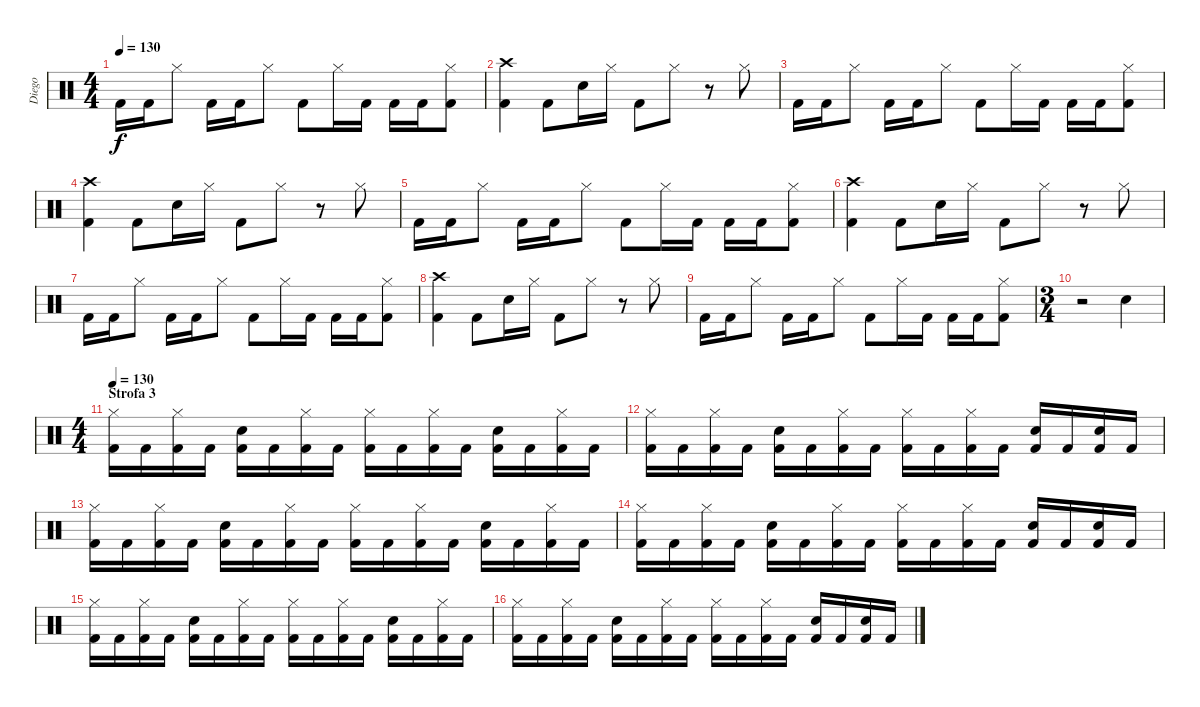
\track ("Diego" "Diego") {instrument percussion}
\staff {score}
\articulation defaults
\ts (4 4)
\tempo 130
\clef neutral
\ks c "Kick (hit) 2".16{dy f} "Kick (hit) 2".16 "Hi-Hat (closed)".8 "Kick (hit) 2".16 "Kick (hit) 2".16 "Hi-Hat (closed)".8 "Kick (hit) 2".8 "Hi-Hat (closed)".16 "Kick (hit) 2".16 "Kick (hit) 2".16 "Kick (hit) 2".16
("Hi-Hat (closed)" "Kick (hit) 2").8 |
("Crash high (hit)" "Kick (hit) 2").4 "Kick (hit) 2".8 "Snare (hit) 2".16 "Hi-Hat (closed)".16 "Kick (hit) 2".8 "Hi-Hat (closed)".8 r.8 "Hi-Hat (closed)".8 |
"Kick (hit) 2".16 "Kick (hit) 2".16 "Hi-Hat (closed)".8 "Kick (hit) 2".16 "Kick (hit) 2".16 "Hi-Hat (closed)".8 "Kick (hit) 2".8 "Hi-Hat (closed)".16 "Kick (hit) 2".16 "Kick (hit) 2".16 "Kick (hit) 2".16 ("Hi-Hat (closed)" "Kick (hit) 2").8 |
("Crash high (hit)" "Kick (hit) 2").4 "Kick (hit) 2".8 "Snare (hit) 2".16 "Hi-Hat (closed)".16 "Kick (hit) 2".8 "Hi-Hat (closed)".8 r.8 "Hi-Hat (closed)".8 |
"Kick (hit) 2".16 "Kick (hit) 2".16 "Hi-Hat (closed)".8 "Kick (hit) 2".16 "Kick (hit) 2".16 "Hi-Hat (closed)".8 "Kick (hit) 2".8 "Hi-Hat (closed)".16 "Kick (hit) 2".16 "Kick (hit) 2".16 "Kick (hit) 2".16 ("Hi-Hat (closed)" "Kick (hit) 2").8 |
("Crash high (hit)" "Kick (hit) 2").4 "Kick (hit) 2".8 "Snare (hit) 2".16 "Hi-Hat (closed)".16 "Kick (hit) 2".8 "Hi-Hat (closed)".8 r.8 "Hi-Hat (closed)".8 |
"Kick (hit) 2".16 "Kick (hit) 2".16 "Hi-Hat (closed)".8 "Kick (hit) 2".16 "Kick (hit) 2".16 "Hi-Hat (closed)".8 "Kick (hit) 2".8 "Hi-Hat (closed)".16 "Kick (hit) 2".16 "Kick (hit) 2".16 "Kick (hit) 2".16 ("Hi-Hat (closed)" "Kick (hit) 2").8 |
("Crash high (hit)" "Kick (hit) 2").4 "Kick (hit) 2".8 "Snare (hit) 2".16 "Hi-Hat (closed)".16 "Kick (hit) 2".8 "Hi-Hat (closed)".8 r.8 "Hi-Hat (closed)".8 |
"Kick (hit) 2".16 "Kick (hit) 2".16 "Hi-Hat (closed)".8 "Kick (hit) 2".16 "Kick (hit) 2".16 "Hi-Hat (closed)".8 "Kick (hit) 2".8 "Hi-Hat (closed)".16 "Kick (hit) 2".16 "Kick (hit) 2".16 "Kick (hit) 2".16 ("Hi-Hat (closed)" "Kick (hit) 2").8 |
\ts (3 4)
r.2 "Snare (hit) 2".4 |
\ts (4 4)
\section ("" "Strofa 3")
\tempo 130
("Hi-Hat (closed)" "Kick (hit) 2").16 "Kick (hit) 2".16 ("Hi-Hat (closed)" "Kick (hit) 2").16 "Kick (hit) 2".16 ("Snare (hit) 2" "Kick (hit) 2").16 "Kick (hit) 2".16 ("Hi-Hat (closed)" "Kick (hit) 2").16 "Kick (hit) 2".16 ("Hi-Hat (closed)" "Kick (hit) 2").16 "Kick (hit) 2".16 ("Hi-Hat (closed)" "Kick (hit) 2").16 "Kick (hit) 2".16 ("Snare (hit) 2" "Kick (hit) 2").16 "Kick (hit) 2".16 ("Hi-Hat (closed)" "Kick (hit) 2").16 "Kick (hit) 2".16 |
("Hi-Hat (closed)" "Kick (hit) 2").16 "Kick (hit) 2".16 ("Hi-Hat (closed)" "Kick (hit) 2").16 "Kick (hit) 2".16 ("Snare (hit) 2" "Kick (hit) 2").16 "Kick (hit) 2".16 ("Hi-Hat (closed)" "Kick (hit) 2").16 "Kick (hit) 2".16 ("Hi-Hat (closed)" "Kick (hit) 2").16 "Kick (hit) 2".16 ("Hi-Hat (closed)" "Kick (hit) 2").16 "Kick (hit) 2".16 ("Snare (hit) 2" "Kick (hit) 2").16 "Kick (hit) 2".16 ("Snare (hit) 2" "Kick (hit) 2").16 "Kick (hit) 2".16 |
("Hi-Hat (closed)" "Kick (hit) 2").16 "Kick (hit) 2".16 ("Hi-Hat (closed)" "Kick (hit) 2").16 "Kick (hit) 2".16 ("Snare (hit) 2" "Kick (hit) 2").16 "Kick (hit) 2".16 ("Hi-Hat (closed)" "Kick (hit) 2").16 "Kick (hit) 2".16 ("Hi-Hat (closed)" "Kick (hit) 2").16 "Kick (hit) 2".16 ("Hi-Hat (closed)" "Kick (hit) 2").16 "Kick (hit) 2".16 ("Snare (hit) 2" "Kick (hit) 2").16 "Kick (hit) 2".16 ("Hi-Hat (closed)" "Kick (hit) 2").16 "Kick (hit) 2".16 |
("Hi-Hat (closed)" "Kick (hit) 2").16 "Kick (hit) 2".16 ("Hi-Hat (closed)" "Kick (hit) 2").16 "Kick (hit) 2".16 ("Snare (hit) 2" "Kick (hit) 2").16 "Kick (hit) 2".16 ("Hi-Hat (closed)" "Kick (hit) 2").16 "Kick (hit) 2".16 ("Hi-Hat (closed)" "Kick (hit) 2").16 "Kick (hit) 2".16 ("Hi-Hat (closed)" "Kick (hit) 2").16 "Kick (hit) 2".16 ("Snare (hit) 2" "Kick (hit) 2").16 "Kick (hit) 2".16 ("Snare (hit) 2" "Kick (hit) 2").16 "Kick (hit) 2".16 |
("Hi-Hat (closed)" "Kick (hit) 2").16 "Kick (hit) 2".16 ("Hi-Hat (closed)" "Kick (hit) 2").16 "Kick (hit) 2".16 ("Snare (hit) 2" "Kick (hit) 2").16 "Kick (hit) 2".16 ("Hi-Hat (closed)" "Kick (hit) 2").16 "Kick (hit) 2".16 ("Hi-Hat (closed)" "Kick (hit) 2").16 "Kick (hit) 2".16 ("Hi-Hat (closed)" "Kick (hit) 2").16 "Kick (hit) 2".16 ("Snare (hit) 2" "Kick (hit) 2").16 "Kick (hit) 2".16 ("Hi-Hat (closed)" "Kick (hit) 2").16 "Kick (hit) 2".16 |
("Hi-Hat (closed)" "Kick (hit) 2").16 "Kick (hit) 2".16 ("Hi-Hat (closed)" "Kick (hit) 2").16 "Kick (hit) 2".16 ("Snare (hit) 2" "Kick (hit) 2").16 "Kick (hit) 2".16 ("Hi-Hat (closed)" "Kick (hit) 2").16 "Kick (hit) 2".16 ("Hi-Hat (closed)" "Kick (hit) 2").16 "Kick (hit) 2".16 ("Hi-Hat (closed)" "Kick (hit) 2").16 "Kick (hit) 2".16 ("Snare (hit) 2" "Kick (hit) 2").16 "Kick (hit) 2".16 ("Snare (hit) 2" "Kick (hit) 2").16 "Kick (hit) 2".16
